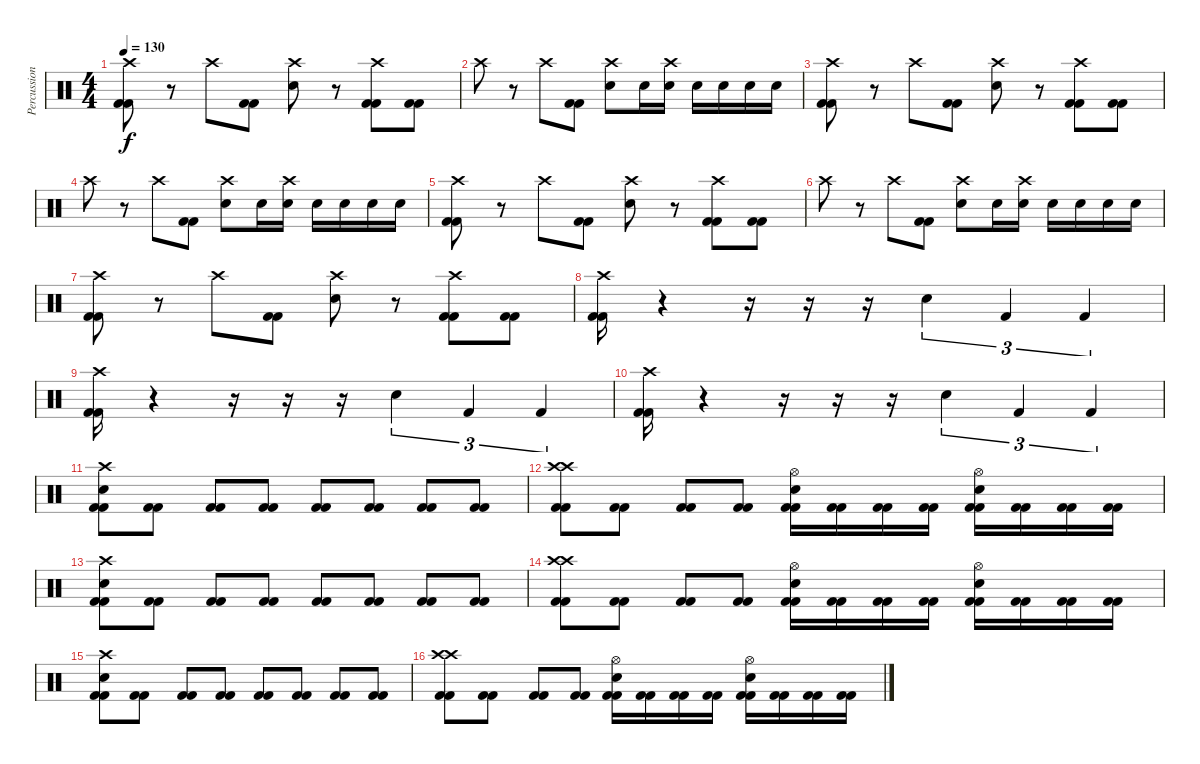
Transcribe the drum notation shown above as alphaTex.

\track ("Percussion" "Percussion") {instrument percussion}
\staff {score}
\articulation defaults
\ts (4 4)
\tempo 130
\clef neutral
\ks c
("Crash high (hit)" "Kick (hit) 2" "Kick (hit) 2").8{dy f} r.8 "Crash high (hit)".8 ("Kick (hit) 2" "Kick (hit) 2").8 ("Crash high (hit)" "Electric Snare (hit)").8 r.8 ("Crash high (hit)" "Kick (hit) 2" "Kick (hit) 2").8 ("Kick (hit) 2" "Kick (hit) 2").8 |
"Crash high (hit)".8 r.8 "Crash high (hit)".8 ("Kick (hit) 2" "Kick (hit) 2").8 ("Crash high (hit)" "Electric Snare (hit)").8 "Electric Snare (hit)".16 ("Crash high (hit)" "Electric Snare (hit)").16 "Electric Snare (hit)".16 "Electric Snare (hit)".16 "Electric Snare (hit)".16 "Electric Snare (hit)".16 |
("Crash high (hit)" "Kick (hit) 2" "Kick (hit) 2").8 r.8 "Crash high (hit)".8 ("Kick (hit) 2" "Kick (hit) 2").8 ("Crash high (hit)" "Electric Snare (hit)").8 r.8 ("Crash high (hit)" "Kick (hit) 2" "Kick (hit) 2").8 ("Kick (hit) 2" "Kick (hit) 2").8 |
"Crash high (hit)".8 r.8 "Crash high (hit)".8 ("Kick (hit) 2" "Kick (hit) 2").8 ("Crash high (hit)" "Electric Snare (hit)").8 "Electric Snare (hit)".16 ("Crash high (hit)" "Electric Snare (hit)").16 "Electric Snare (hit)".16 "Electric Snare (hit)".16 "Electric Snare (hit)".16 "Electric Snare (hit)".16 |
("Crash high (hit)" "Kick (hit) 2" "Kick (hit) 2").8 r.8 "Crash high (hit)".8 ("Kick (hit) 2" "Kick (hit) 2").8 ("Crash high (hit)" "Electric Snare (hit)").8 r.8 ("Crash high (hit)" "Kick (hit) 2" "Kick (hit) 2").8 ("Kick (hit) 2" "Kick (hit) 2").8 |
"Crash high (hit)".8 r.8 "Crash high (hit)".8 ("Kick (hit) 2" "Kick (hit) 2").8 ("Crash high (hit)" "Electric Snare (hit)").8 "Electric Snare (hit)".16 ("Crash high (hit)" "Electric Snare (hit)").16 "Electric Snare (hit)".16 "Electric Snare (hit)".16 "Electric Snare (hit)".16 "Electric Snare (hit)".16 |
("Crash high (hit)" "Kick (hit) 2" "Kick (hit) 2").8 r.8 "Crash high (hit)".8 ("Kick (hit) 2" "Kick (hit) 2").8 ("Crash high (hit)" "Electric Snare (hit)").8 r.8 ("Crash high (hit)" "Kick (hit) 2" "Kick (hit) 2").8 ("Kick (hit) 2" "Kick (hit) 2").8 |
("Crash high (hit)" "Kick (hit) 2" "Kick (hit) 2").16 r.4 r.16 r.16 r.16 "Electric Snare (hit)".4{tu (3 2)} "Kick (hit) 2".4{tu (3 2)} "Kick (hit) 2".4{tu (3 2)} |
("Crash high (hit)" "Kick (hit) 2" "Kick (hit) 2").16 r.4 r.16 r.16 r.16 "Electric Snare (hit)".4{tu (3 2)} "Kick (hit) 2".4{tu (3 2)} "Kick (hit) 2".4{tu (3 2)} |
("Crash high (hit)" "Kick (hit) 2" "Kick (hit) 2").16 r.4 r.16 r.16 r.16 "Electric Snare (hit)".4{tu (3 2)} "Kick (hit) 2".4{tu (3 2)} "Kick (hit) 2".4{tu (3 2)} |
("Crash high (hit)" "Electric Snare (hit)" "Kick (hit) 2" "Kick (hit) 2").8 ("Kick (hit) 2" "Kick (hit) 2").8 ("Kick (hit) 2" "Kick (hit) 2").8 ("Kick (hit) 2" "Kick (hit) 2").8 ("Kick (hit) 2" "Kick (hit) 2").8 ("Kick (hit) 2" "Kick (hit) 2").8 ("Kick (hit) 2" "Kick (hit) 2").8 ("Kick (hit) 2" "Kick (hit) 2").8 |
("Crash high (hit)" "Crash high (hit)" "Kick (hit) 2" "Kick (hit) 2").8 ("Kick (hit) 2" "Kick (hit) 2").8 ("Kick (hit) 2" "Kick (hit) 2").8 ("Kick (hit) 2" "Kick (hit) 2").8 ("Hi-Hat (open)" "Electric Snare (hit)" "Kick (hit) 2" "Kick (hit) 2").16 ("Kick (hit) 2" "Kick (hit) 2").16 ("Kick (hit) 2" "Kick (hit) 2").16 ("Kick (hit) 2" "Kick (hit) 2").16 ("Hi-Hat (open)" "Electric Snare (hit)" "Kick (hit) 2" "Kick (hit) 2").16 ("Kick (hit) 2" "Kick (hit) 2").16 ("Kick (hit) 2" "Kick (hit) 2").16 ("Kick (hit) 2" "Kick (hit) 2").16 |
("Crash high (hit)" "Electric Snare (hit)" "Kick (hit) 2" "Kick (hit) 2").8 ("Kick (hit) 2" "Kick (hit) 2").8 ("Kick (hit) 2" "Kick (hit) 2").8 ("Kick (hit) 2" "Kick (hit) 2").8 ("Kick (hit) 2" "Kick (hit) 2").8 ("Kick (hit) 2" "Kick (hit) 2").8 ("Kick (hit) 2" "Kick (hit) 2").8 ("Kick (hit) 2" "Kick (hit) 2").8 |
("Crash high (hit)" "Crash high (hit)" "Kick (hit) 2" "Kick (hit) 2").8 ("Kick (hit) 2" "Kick (hit) 2").8 ("Kick (hit) 2" "Kick (hit) 2").8 ("Kick (hit) 2" "Kick (hit) 2").8 ("Hi-Hat (open)" "Electric Snare (hit)" "Kick (hit) 2" "Kick (hit) 2").16 ("Kick (hit) 2" "Kick (hit) 2").16 ("Kick (hit) 2" "Kick (hit) 2").16 ("Kick (hit) 2" "Kick (hit) 2").16 ("Hi-Hat (open)" "Electric Snare (hit)" "Kick (hit) 2" "Kick (hit) 2").16 ("Kick (hit) 2" "Kick (hit) 2").16 ("Kick (hit) 2" "Kick (hit) 2").16 ("Kick (hit) 2" "Kick (hit) 2").16 |
("Crash high (hit)" "Electric Snare (hit)" "Kick (hit) 2" "Kick (hit) 2").8 ("Kick (hit) 2" "Kick (hit) 2").8 ("Kick (hit) 2" "Kick (hit) 2").8 ("Kick (hit) 2" "Kick (hit) 2").8 ("Kick (hit) 2" "Kick (hit) 2").8 ("Kick (hit) 2" "Kick (hit) 2").8 ("Kick (hit) 2" "Kick (hit) 2").8 ("Kick (hit) 2" "Kick (hit) 2").8 |
("Crash high (hit)" "Crash high (hit)" "Kick (hit) 2" "Kick (hit) 2").8 ("Kick (hit) 2" "Kick (hit) 2").8 ("Kick (hit) 2" "Kick (hit) 2").8 ("Kick (hit) 2" "Kick (hit) 2").8 ("Hi-Hat (open)" "Electric Snare (hit)" "Kick (hit) 2" "Kick (hit) 2").16 ("Kick (hit) 2" "Kick (hit) 2").16 ("Kick (hit) 2" "Kick (hit) 2").16 ("Kick (hit) 2" "Kick (hit) 2").16 ("Hi-Hat (open)" "Electric Snare (hit)" "Kick (hit) 2" "Kick (hit) 2").16 ("Kick (hit) 2" "Kick (hit) 2").16 ("Kick (hit) 2" "Kick (hit) 2").16 ("Kick (hit) 2" "Kick (hit) 2").16
